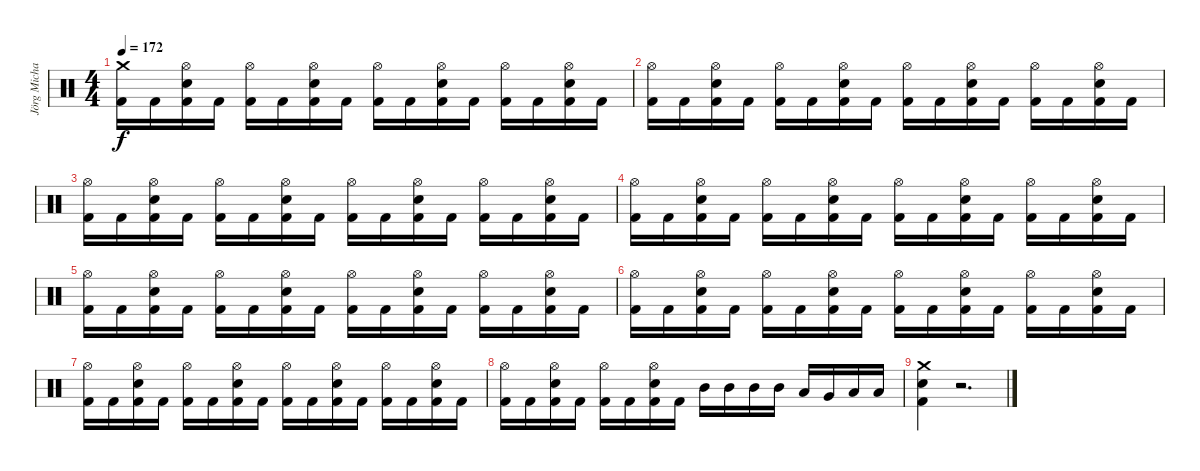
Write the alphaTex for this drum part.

\track ("Jörg Michael" "Jörg Micha") {instrument percussion}
\staff {score}
\articulation defaults
\ts (4 4)
\tempo 172
\clef neutral
\ks c
("Crash medium (hit)" "Kick (hit) 2").16{dy f} "Kick (hit) 2".16 ("Hi-Hat (open)" "Kick (hit) 2" "Electric Snare (hit)").16 "Kick (hit) 2".16 ("Hi-Hat (open)" "Kick (hit) 2").16 "Kick (hit) 2".16 ("Hi-Hat (open)" "Kick (hit) 2" "Electric Snare (hit)").16 "Kick (hit) 2".16 ("Hi-Hat (open)" "Kick (hit) 2").16 "Kick (hit) 2".16 ("Hi-Hat (open)" "Kick (hit) 2" "Electric Snare (hit)").16 "Kick (hit) 2".16 ("Hi-Hat (open)" "Kick (hit) 2").16 "Kick (hit) 2".16 ("Hi-Hat (open)" "Kick (hit) 2" "Electric Snare (hit)").16 "Kick (hit) 2".16 |
("Hi-Hat (open)" "Kick (hit) 2").16 "Kick (hit) 2".16 ("Hi-Hat (open)" "Kick (hit) 2" "Electric Snare (hit)").16 "Kick (hit) 2".16 ("Hi-Hat (open)" "Kick (hit) 2").16 "Kick (hit) 2".16 ("Hi-Hat (open)" "Kick (hit) 2" "Electric Snare (hit)").16 "Kick (hit) 2".16 ("Hi-Hat (open)" "Kick (hit) 2").16 "Kick (hit) 2".16 ("Hi-Hat (open)" "Kick (hit) 2" "Electric Snare (hit)").16 "Kick (hit) 2".16 ("Hi-Hat (open)" "Kick (hit) 2").16 "Kick (hit) 2".16 ("Hi-Hat (open)" "Kick (hit) 2" "Electric Snare (hit)").16 "Kick (hit) 2".16 |
("Hi-Hat (open)" "Kick (hit) 2").16 "Kick (hit) 2".16 ("Hi-Hat (open)" "Kick (hit) 2" "Electric Snare (hit)").16 "Kick (hit) 2".16 ("Hi-Hat (open)" "Kick (hit) 2").16 "Kick (hit) 2".16 ("Hi-Hat (open)" "Kick (hit) 2" "Electric Snare (hit)").16 "Kick (hit) 2".16 ("Hi-Hat (open)" "Kick (hit) 2").16 "Kick (hit) 2".16 ("Hi-Hat (open)" "Kick (hit) 2" "Electric Snare (hit)").16 "Kick (hit) 2".16 ("Hi-Hat (open)" "Kick (hit) 2").16 "Kick (hit) 2".16 ("Hi-Hat (open)" "Kick (hit) 2" "Electric Snare (hit)").16 "Kick (hit) 2".16 |
("Hi-Hat (open)" "Kick (hit) 2").16 "Kick (hit) 2".16 ("Hi-Hat (open)" "Kick (hit) 2" "Electric Snare (hit)").16 "Kick (hit) 2".16 ("Hi-Hat (open)" "Kick (hit) 2").16 "Kick (hit) 2".16 ("Hi-Hat (open)" "Kick (hit) 2" "Electric Snare (hit)").16 "Kick (hit) 2".16 ("Hi-Hat (open)" "Kick (hit) 2").16 "Kick (hit) 2".16 ("Hi-Hat (open)" "Kick (hit) 2" "Electric Snare (hit)").16 "Kick (hit) 2".16 ("Hi-Hat (open)" "Kick (hit) 2").16 "Kick (hit) 2".16 ("Hi-Hat (open)" "Kick (hit) 2" "Electric Snare (hit)").16 "Kick (hit) 2".16 |
("Hi-Hat (open)" "Kick (hit) 2").16 "Kick (hit) 2".16 ("Hi-Hat (open)" "Kick (hit) 2" "Electric Snare (hit)").16 "Kick (hit) 2".16 ("Hi-Hat (open)" "Kick (hit) 2").16 "Kick (hit) 2".16 ("Hi-Hat (open)" "Kick (hit) 2" "Electric Snare (hit)").16 "Kick (hit) 2".16 ("Hi-Hat (open)" "Kick (hit) 2").16 "Kick (hit) 2".16 ("Hi-Hat (open)" "Kick (hit) 2" "Electric Snare (hit)").16 "Kick (hit) 2".16 ("Hi-Hat (open)" "Kick (hit) 2").16 "Kick (hit) 2".16 ("Hi-Hat (open)" "Kick (hit) 2" "Electric Snare (hit)").16 "Kick (hit) 2".16 |
("Hi-Hat (open)" "Kick (hit) 2").16 "Kick (hit) 2".16 ("Hi-Hat (open)" "Kick (hit) 2" "Electric Snare (hit)").16 "Kick (hit) 2".16 ("Hi-Hat (open)" "Kick (hit) 2").16 "Kick (hit) 2".16 ("Hi-Hat (open)" "Kick (hit) 2" "Electric Snare (hit)").16 "Kick (hit) 2".16 ("Hi-Hat (open)" "Kick (hit) 2").16 "Kick (hit) 2".16 ("Hi-Hat (open)" "Kick (hit) 2" "Electric Snare (hit)").16 "Kick (hit) 2".16 ("Hi-Hat (open)" "Kick (hit) 2").16 "Kick (hit) 2".16 ("Hi-Hat (open)" "Kick (hit) 2" "Electric Snare (hit)").16 "Kick (hit) 2".16 |
("Hi-Hat (open)" "Kick (hit) 2").16 "Kick (hit) 2".16 ("Hi-Hat (open)" "Kick (hit) 2" "Electric Snare (hit)").16 "Kick (hit) 2".16 ("Hi-Hat (open)" "Kick (hit) 2").16 "Kick (hit) 2".16 ("Hi-Hat (open)" "Kick (hit) 2" "Electric Snare (hit)").16 "Kick (hit) 2".16 ("Hi-Hat (open)" "Kick (hit) 2").16 "Kick (hit) 2".16 ("Hi-Hat (open)" "Kick (hit) 2" "Electric Snare (hit)").16 "Kick (hit) 2".16 ("Hi-Hat (open)" "Kick (hit) 2").16 "Kick (hit) 2".16 ("Hi-Hat (open)" "Kick (hit) 2" "Electric Snare (hit)").16 "Kick (hit) 2".16 |
("Hi-Hat (open)" "Kick (hit) 2").16 "Kick (hit) 2".16 ("Hi-Hat (open)" "Kick (hit) 2" "Electric Snare (hit)").16 "Kick (hit) 2".16 ("Hi-Hat (open)" "Kick (hit) 2").16 "Kick (hit) 2".16 ("Hi-Hat (open)" "Kick (hit) 2" "Electric Snare (hit)").16 "Kick (hit) 2".16 "Mid Tom (hit)".16 "Mid Tom (hit)".16 "Mid Tom (hit)".16 "Mid Tom (hit)".16 "Low Tom (hit)".16 "Very Low Tom (hit)".16 "Low Tom (hit)".16 "Low Tom (hit)".16 |
("Crash medium (hit)" "Electric Snare (hit)" "Kick (hit) 2").4 r.2{d}
